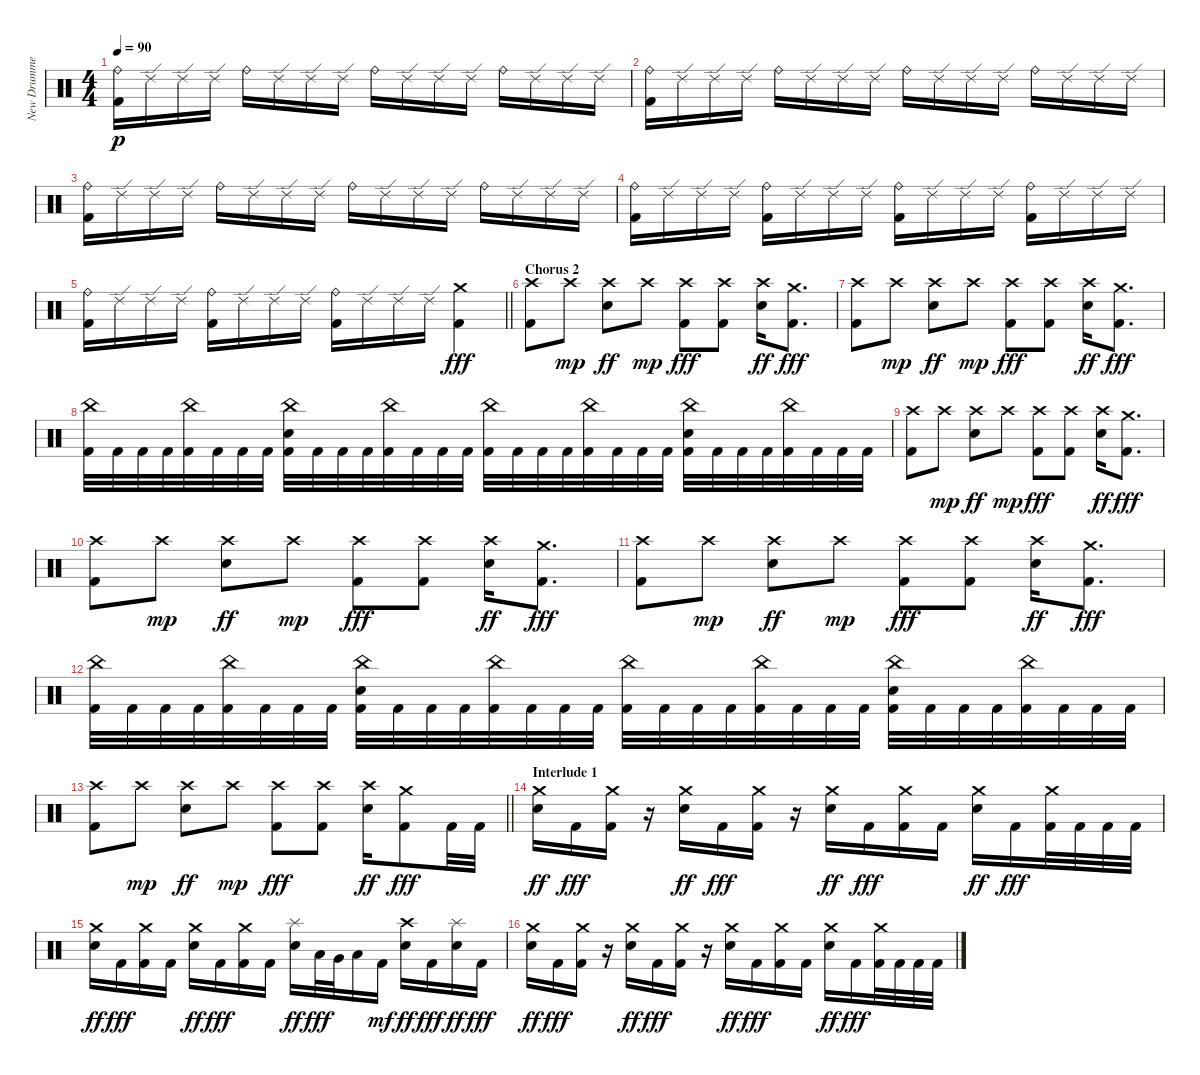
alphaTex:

\track ("New Drummer" "New Drumme") {instrument percussion}
\staff {score}
\articulation defaults
\ts (4 4)
\tempo 90
\clef neutral
\ks c
("Ride (bell)" "Kick (hit) 2").16{dy p} "Ride (edge) 2".16 "Ride (edge) 2".16 "Ride (edge) 2".16 "Ride (bell)".16 "Ride (edge) 2".16 "Ride (edge) 2".16 "Ride (edge) 2".16 "Ride (bell)".16 "Ride (edge) 2".16 "Ride (edge) 2".16 "Ride (edge) 2".16 "Ride (bell)".16 "Ride (edge) 2".16 "Ride (edge) 2".16 "Ride (edge) 2".16 |
("Ride (bell)" "Kick (hit) 2").16 "Ride (edge) 2".16 "Ride (edge) 2".16 "Ride (edge) 2".16 "Ride (bell)".16 "Ride (edge) 2".16 "Ride (edge) 2".16 "Ride (edge) 2".16 "Ride (bell)".16 "Ride (edge) 2".16 "Ride (edge) 2".16 "Ride (edge) 2".16 "Ride (bell)".16 "Ride (edge) 2".16 "Ride (edge) 2".16 "Ride (edge) 2".16 |
("Ride (bell)" "Kick (hit) 2").16 "Ride (edge) 2".16 "Ride (edge) 2".16 "Ride (edge) 2".16 "Ride (bell)".16 "Ride (edge) 2".16 "Ride (edge) 2".16 "Ride (edge) 2".16 "Ride (bell)".16 "Ride (edge) 2".16 "Ride (edge) 2".16 "Ride (edge) 2".16 "Ride (bell)".16 "Ride (edge) 2".16 "Ride (edge) 2".16 "Ride (edge) 2".16 |
("Ride (bell)" "Kick (hit) 2").16 "Ride (edge) 2".16 "Ride (edge) 2".16 "Ride (edge) 2".16 ("Ride (bell)" "Kick (hit) 2").16 "Ride (edge) 2".16 "Ride (edge) 2".16 "Ride (edge) 2".16 ("Ride (bell)" "Kick (hit) 2").16 "Ride (edge) 2".16 "Ride (edge) 2".16 "Ride (edge) 2".16 ("Ride (bell)" "Kick (hit) 2").16 "Ride (edge) 2".16 "Ride (edge) 2".16 "Ride (edge) 2".16 |
\barLineRight lightlight
("Ride (bell)" "Kick (hit) 2").16 "Ride (edge) 2".16 "Ride (edge) 2".16 "Ride (edge) 2".16 ("Ride (bell)" "Kick (hit) 2").16 "Ride (edge) 2".16 "Ride (edge) 2".16 "Ride (edge) 2".16 ("Ride (bell)" "Kick (hit) 2").16 "Ride (edge) 2".16 "Ride (edge) 2".16 "Ride (edge) 2".16 ("Crash medium (hit)" "Kick (hit) 2").4{dy fff} |
\section ("" "Chorus 2")
("Crash high (hit)" "Kick (hit) 2").8 "Crash high (hit)".8{dy mp} ("Crash high (hit)" "Electric Snare (hit)").8{dy ff} "Crash high (hit)".8{dy mp} ("Crash high (hit)" "Kick (hit) 2").8{dy fff} ("Crash high (hit)" "Kick (hit) 2").8 ("Crash high (hit)" "Electric Snare (hit)").16{dy ff} ("Crash medium (hit)" "Kick (hit) 2").8{d dy fff} |
("Crash high (hit)" "Kick (hit) 2").8 "Crash high (hit)".8{dy mp} ("Crash high (hit)" "Electric Snare (hit)").8{dy ff} "Crash high (hit)".8{dy mp} ("Crash high (hit)" "Kick (hit) 2").8{dy fff} ("Crash high (hit)" "Kick (hit) 2").8 ("Crash high (hit)" "Electric Snare (hit)").16{dy ff} ("Crash medium (hit)" "Kick (hit) 2").8{d dy fff} |
("China (hit)" "Kick (hit) 2").32 "Kick (hit) 2".32 "Kick (hit) 2".32 "Kick (hit) 2".32 ("China (hit)" "Kick (hit) 2").32 "Kick (hit) 2".32 "Kick (hit) 2".32 "Kick (hit) 2".32 ("China (hit)" "Electric Snare (hit)" "Kick (hit) 2").32 "Kick (hit) 2".32 "Kick (hit) 2".32 "Kick (hit) 2".32 ("China (hit)" "Kick (hit) 2").32 "Kick (hit) 2".32 "Kick (hit) 2".32 "Kick (hit) 2".32 ("China (hit)" "Kick (hit) 2").32 "Kick (hit) 2".32 "Kick (hit) 2".32 "Kick (hit) 2".32 ("China (hit)" "Kick (hit) 2").32 "Kick (hit) 2".32 "Kick (hit) 2".32 "Kick (hit) 2".32 ("China (hit)" "Electric Snare (hit)" "Kick (hit) 2").32 "Kick (hit) 2".32 "Kick (hit) 2".32 "Kick (hit) 2".32 ("China (hit)" "Kick (hit) 2").32 "Kick (hit) 2".32 "Kick (hit) 2".32 "Kick (hit) 2".32 |
("Crash high (hit)" "Kick (hit) 2").8 "Crash high (hit)".8{dy mp} ("Crash high (hit)" "Electric Snare (hit)").8{dy ff} "Crash high (hit)".8{dy mp} ("Crash high (hit)" "Kick (hit) 2").8{dy fff} ("Crash high (hit)" "Kick (hit) 2").8 ("Crash high (hit)" "Electric Snare (hit)").16{dy ff} ("Crash medium (hit)" "Kick (hit) 2").8{d dy fff} |
("Crash high (hit)" "Kick (hit) 2").8 "Crash high (hit)".8{dy mp} ("Crash high (hit)" "Electric Snare (hit)").8{dy ff} "Crash high (hit)".8{dy mp} ("Crash high (hit)" "Kick (hit) 2").8{dy fff} ("Crash high (hit)" "Kick (hit) 2").8 ("Crash high (hit)" "Electric Snare (hit)").16{dy ff} ("Crash medium (hit)" "Kick (hit) 2").8{d dy fff} |
("Crash high (hit)" "Kick (hit) 2").8 "Crash high (hit)".8{dy mp} ("Crash high (hit)" "Electric Snare (hit)").8{dy ff} "Crash high (hit)".8{dy mp} ("Crash high (hit)" "Kick (hit) 2").8{dy fff} ("Crash high (hit)" "Kick (hit) 2").8 ("Crash high (hit)" "Electric Snare (hit)").16{dy ff} ("Crash medium (hit)" "Kick (hit) 2").8{d dy fff} |
("China (hit)" "Kick (hit) 2").32 "Kick (hit) 2".32 "Kick (hit) 2".32 "Kick (hit) 2".32 ("China (hit)" "Kick (hit) 2").32 "Kick (hit) 2".32 "Kick (hit) 2".32 "Kick (hit) 2".32 ("China (hit)" "Electric Snare (hit)" "Kick (hit) 2").32 "Kick (hit) 2".32 "Kick (hit) 2".32 "Kick (hit) 2".32 ("China (hit)" "Kick (hit) 2").32 "Kick (hit) 2".32 "Kick (hit) 2".32 "Kick (hit) 2".32 ("China (hit)" "Kick (hit) 2").32 "Kick (hit) 2".32 "Kick (hit) 2".32 "Kick (hit) 2".32 ("China (hit)" "Kick (hit) 2").32 "Kick (hit) 2".32 "Kick (hit) 2".32 "Kick (hit) 2".32 ("China (hit)" "Electric Snare (hit)" "Kick (hit) 2").32 "Kick (hit) 2".32 "Kick (hit) 2".32 "Kick (hit) 2".32 ("China (hit)" "Kick (hit) 2").32 "Kick (hit) 2".32 "Kick (hit) 2".32 "Kick (hit) 2".32 |
\barLineRight lightlight
("Crash high (hit)" "Kick (hit) 2").8 "Crash high (hit)".8{dy mp} ("Crash high (hit)" "Electric Snare (hit)").8{dy ff} "Crash high (hit)".8{dy mp} ("Crash high (hit)" "Kick (hit) 2").8{dy fff} ("Crash high (hit)" "Kick (hit) 2").8 ("Crash high (hit)" "Electric Snare (hit)").16{dy ff} ("Crash medium (hit)" "Kick (hit) 2").8{dy fff} "Kick (hit) 2".32 "Kick (hit) 2".32 |
\section ("" "Interlude 1")
("Crash medium (hit)" "Electric Snare (hit)").16{dy ff} "Kick (hit) 2".16{dy fff} ("Crash medium (hit)" "Kick (hit) 2").16 r.16 ("Crash medium (hit)" "Electric Snare (hit)").16{dy ff} "Kick (hit) 2".16{dy fff} ("Crash medium (hit)" "Kick (hit) 2").16 r.16 ("Crash medium (hit)" "Electric Snare (hit)").16{dy ff} "Kick (hit) 2".16{dy fff} ("Crash medium (hit)" "Kick (hit) 2").16 "Kick (hit) 2".16 ("Crash medium (hit)" "Electric Snare (hit)").16{dy ff} "Kick (hit) 2".16{dy fff} ("Crash medium (hit)" "Kick (hit) 2").32 "Kick (hit) 2".32 "Kick (hit) 2".32 "Kick (hit) 2".32 |
("Crash medium (hit)" "Electric Snare (hit)").16{dy ff} "Kick (hit) 2".16{dy fff} ("Crash medium (hit)" "Kick (hit) 2").16 "Kick (hit) 2".16 ("Crash medium (hit)" "Electric Snare (hit)").16{dy ff} "Kick (hit) 2".16{dy fff} ("Crash medium (hit)" "Kick (hit) 2").16 "Kick (hit) 2".16 ("Splash (hit)" "Electric Snare (hit)").16{dy ff} "Low Tom (hit)".32{dy fff} "Very Low Tom (hit)".32 "Low Floor Tom (hit)".16 "Kick (hit) 2".16{dy mf} ("Crash high (hit)" "Electric Snare (hit)").16{dy ff} "Kick (hit) 2".16{dy fff} ("Splash (hit)" "Electric Snare (hit)").16{dy ff} "Kick (hit) 2".16{dy fff} |
("Crash medium (hit)" "Electric Snare (hit)").16{dy ff} "Kick (hit) 2".16{dy fff} ("Crash medium (hit)" "Kick (hit) 2").16 r.16 ("Crash medium (hit)" "Electric Snare (hit)").16{dy ff} "Kick (hit) 2".16{dy fff} ("Crash medium (hit)" "Kick (hit) 2").16 r.16 ("Crash medium (hit)" "Electric Snare (hit)").16{dy ff} "Kick (hit) 2".16{dy fff} ("Crash medium (hit)" "Kick (hit) 2").16 "Kick (hit) 2".16 ("Crash medium (hit)" "Electric Snare (hit)").16{dy ff} "Kick (hit) 2".16{dy fff} ("Crash medium (hit)" "Kick (hit) 2").32 "Kick (hit) 2".32 "Kick (hit) 2".32 "Kick (hit) 2".32
